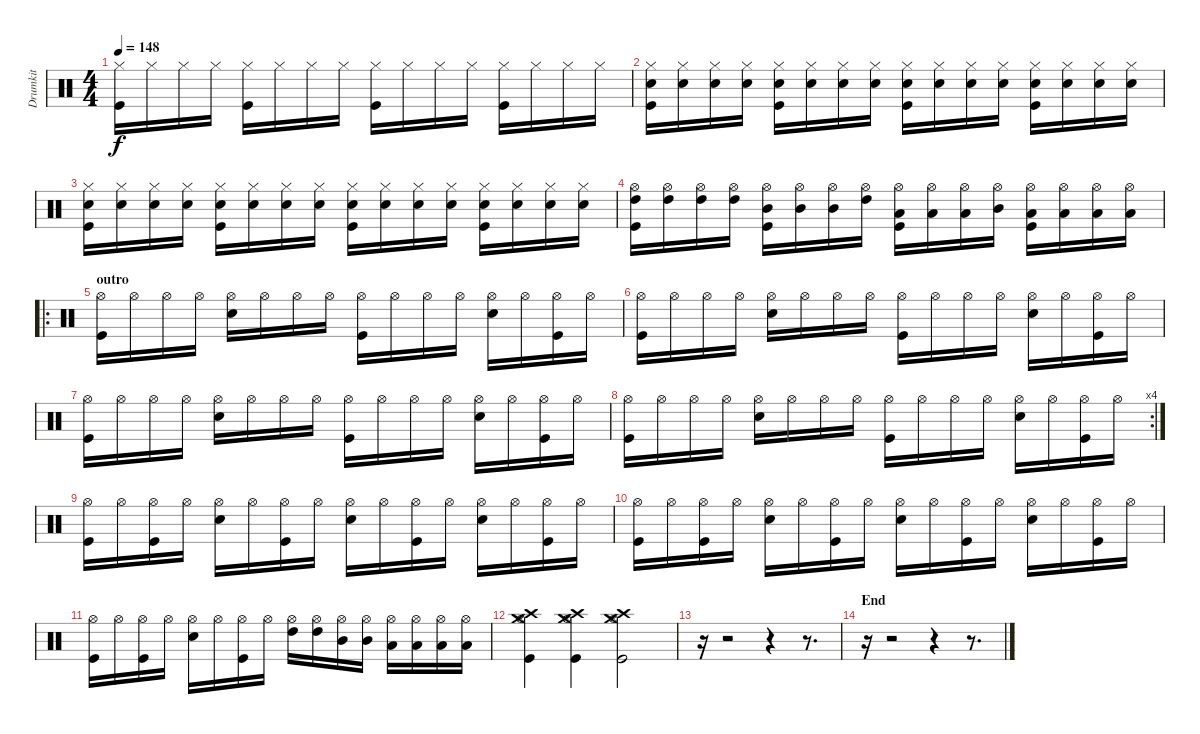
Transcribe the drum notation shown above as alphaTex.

\track ("Drumkit" "Drumkit") {instrument percussion}
\staff {score}
\articulation defaults
\ts (4 4)
\tempo 148
\clef neutral
\ks c
("Hi-Hat (closed)" "Kick (hit)").16{dy f} "Hi-Hat (closed)".16 "Hi-Hat (closed)".16 "Hi-Hat (closed)".16 ("Hi-Hat (closed)" "Kick (hit)").16 "Hi-Hat (closed)".16 "Hi-Hat (closed)".16 "Hi-Hat (closed)".16 ("Hi-Hat (closed)" "Kick (hit)").16 "Hi-Hat (closed)".16 "Hi-Hat (closed)".16 "Hi-Hat (closed)".16 ("Hi-Hat (closed)" "Kick (hit)").16 "Hi-Hat (closed)".16 "Hi-Hat (closed)".16 "Hi-Hat (closed)".16 |
("Hi-Hat (closed)" "Snare (hit) 2" "Kick (hit)").16 ("Hi-Hat (closed)" "Snare (hit) 2").16 ("Hi-Hat (closed)" "Snare (hit) 2").16 ("Hi-Hat (closed)" "Snare (hit) 2").16 ("Hi-Hat (closed)" "Snare (hit) 2" "Kick (hit)").16 ("Hi-Hat (closed)" "Snare (hit) 2").16 ("Hi-Hat (closed)" "Snare (hit) 2").16 ("Hi-Hat (closed)" "Snare (hit) 2").16 ("Hi-Hat (closed)" "Snare (hit) 2" "Kick (hit)").16 ("Hi-Hat (closed)" "Snare (hit) 2").16 ("Hi-Hat (closed)" "Snare (hit) 2").16 ("Hi-Hat (closed)" "Snare (hit) 2").16 ("Hi-Hat (closed)" "Snare (hit) 2" "Kick (hit)").16 ("Hi-Hat (closed)" "Snare (hit) 2").16 ("Hi-Hat (closed)" "Snare (hit) 2").16 ("Hi-Hat (closed)" "Snare (hit) 2").16 |
("Hi-Hat (closed)" "Snare (hit) 2" "Kick (hit)").16 ("Hi-Hat (closed)" "Snare (hit) 2").16 ("Hi-Hat (closed)" "Snare (hit) 2").16 ("Hi-Hat (closed)" "Snare (hit) 2").16 ("Hi-Hat (closed)" "Snare (hit) 2" "Kick (hit)").16 ("Hi-Hat (closed)" "Snare (hit) 2").16 ("Hi-Hat (closed)" "Snare (hit) 2").16 ("Hi-Hat (closed)" "Snare (hit) 2").16 ("Hi-Hat (closed)" "Snare (hit) 2" "Kick (hit)").16 ("Hi-Hat (closed)" "Snare (hit) 2").16 ("Hi-Hat (closed)" "Snare (hit) 2").16 ("Hi-Hat (closed)" "Snare (hit) 2").16 ("Hi-Hat (closed)" "Snare (hit) 2" "Kick (hit)").16 ("Hi-Hat (closed)" "Snare (hit) 2").16 ("Hi-Hat (closed)" "Snare (hit) 2").16 ("Hi-Hat (closed)" "Snare (hit) 2").16 |
("Hi-Hat (open)" "High Tom (hit)" "Kick (hit)").16 ("Hi-Hat (open)" "High Tom (hit)").16 ("Hi-Hat (open)" "High Tom (hit)").16 ("Hi-Hat (open)" "High Tom (hit)").16 ("Hi-Hat (open)" "Mid Tom (hit)" "Kick (hit)").16 ("Hi-Hat (open)" "Mid Tom (hit)").16 ("Hi-Hat (open)" "Mid Tom (hit)").16 ("Hi-Hat (open)" "High Tom (hit)").16 ("Hi-Hat (open)" "Low Tom (hit)" "Kick (hit)").16 ("Hi-Hat (open)" "Low Tom (hit)").16 ("Hi-Hat (open)" "Low Tom (hit)").16 ("Hi-Hat (open)" "Mid Tom (hit)").16 ("Hi-Hat (open)" "Low Floor Tom (hit)" "Kick (hit)").16 ("Hi-Hat (open)" "Low Floor Tom (hit)").16 ("Hi-Hat (open)" "Low Floor Tom (hit)").16 ("Hi-Hat (open)" "Low Floor Tom (hit)").16 |
\ro
\section ("" "outro")
("Hi-Hat (open)" "Kick (hit)").16 "Hi-Hat (open)".16 "Hi-Hat (open)".16 "Hi-Hat (open)".16 ("Hi-Hat (open)" "Snare (hit) 2").16 "Hi-Hat (open)".16 "Hi-Hat (open)".16 "Hi-Hat (open)".16 ("Hi-Hat (open)" "Kick (hit)").16 "Hi-Hat (open)".16 "Hi-Hat (open)".16 "Hi-Hat (open)".16 ("Hi-Hat (open)" "Snare (hit) 2").16 "Hi-Hat (open)".16 ("Hi-Hat (open)" "Kick (hit)").16 "Hi-Hat (open)".16 |
("Hi-Hat (open)" "Kick (hit)").16 "Hi-Hat (open)".16 "Hi-Hat (open)".16 "Hi-Hat (open)".16 ("Hi-Hat (open)" "Snare (hit) 2").16 "Hi-Hat (open)".16 "Hi-Hat (open)".16 "Hi-Hat (open)".16 ("Hi-Hat (open)" "Kick (hit)").16 "Hi-Hat (open)".16 "Hi-Hat (open)".16 "Hi-Hat (open)".16 ("Hi-Hat (open)" "Snare (hit) 2").16 "Hi-Hat (open)".16 ("Hi-Hat (open)" "Kick (hit)").16 "Hi-Hat (open)".16 |
("Hi-Hat (open)" "Kick (hit)").16 "Hi-Hat (open)".16 "Hi-Hat (open)".16 "Hi-Hat (open)".16 ("Hi-Hat (open)" "Snare (hit) 2").16 "Hi-Hat (open)".16 "Hi-Hat (open)".16 "Hi-Hat (open)".16 ("Hi-Hat (open)" "Kick (hit)").16 "Hi-Hat (open)".16 "Hi-Hat (open)".16 "Hi-Hat (open)".16 ("Hi-Hat (open)" "Snare (hit) 2").16 "Hi-Hat (open)".16 ("Hi-Hat (open)" "Kick (hit)").16 "Hi-Hat (open)".16 |
\rc 4
("Hi-Hat (open)" "Kick (hit)").16 "Hi-Hat (open)".16 "Hi-Hat (open)".16 "Hi-Hat (open)".16 ("Hi-Hat (open)" "Snare (hit) 2").16 "Hi-Hat (open)".16 "Hi-Hat (open)".16 "Hi-Hat (open)".16 ("Hi-Hat (open)" "Kick (hit)").16 "Hi-Hat (open)".16 "Hi-Hat (open)".16 "Hi-Hat (open)".16 ("Hi-Hat (open)" "Snare (hit) 2").16 "Hi-Hat (open)".16 ("Hi-Hat (open)" "Kick (hit)").16 "Hi-Hat (open)".16 |
("Hi-Hat (open)" "Kick (hit)").16 "Hi-Hat (open)".16 ("Hi-Hat (open)" "Kick (hit)").16 "Hi-Hat (open)".16 ("Hi-Hat (open)" "Snare (hit) 2").16 "Hi-Hat (open)".16 ("Hi-Hat (open)" "Kick (hit)").16 "Hi-Hat (open)".16 ("Hi-Hat (open)" "Snare (hit) 2").16 "Hi-Hat (open)".16 ("Hi-Hat (open)" "Kick (hit)").16 "Hi-Hat (open)".16 ("Hi-Hat (open)" "Snare (hit) 2").16 "Hi-Hat (open)".16 ("Hi-Hat (open)" "Kick (hit)").16 "Hi-Hat (open)".16 |
("Hi-Hat (open)" "Kick (hit)").16 "Hi-Hat (open)".16 ("Hi-Hat (open)" "Kick (hit)").16 "Hi-Hat (open)".16 ("Hi-Hat (open)" "Snare (hit) 2").16 "Hi-Hat (open)".16 ("Hi-Hat (open)" "Kick (hit)").16 "Hi-Hat (open)".16 ("Hi-Hat (open)" "Snare (hit) 2").16 "Hi-Hat (open)".16 ("Hi-Hat (open)" "Kick (hit)").16 "Hi-Hat (open)".16 ("Hi-Hat (open)" "Snare (hit) 2").16 "Hi-Hat (open)".16 ("Hi-Hat (open)" "Kick (hit)").16 "Hi-Hat (open)".16 |
("Hi-Hat (open)" "Kick (hit)").16 "Hi-Hat (open)".16 ("Hi-Hat (open)" "Kick (hit)").16 "Hi-Hat (open)".16 ("Hi-Hat (open)" "Snare (hit) 2").16 "Hi-Hat (open)".16 ("Hi-Hat (open)" "Kick (hit)").16 "Hi-Hat (open)".16 ("Hi-Hat (open)" "High Tom (hit)").16 ("Hi-Hat (open)" "High Tom (hit)").16 ("Hi-Hat (open)" "Mid Tom (hit)").16 ("Hi-Hat (open)" "Mid Tom (hit)").16 ("Hi-Hat (open)" "Low Floor Tom (hit)").16 ("Hi-Hat (open)" "Low Floor Tom (hit)").16 ("Hi-Hat (open)" "Low Floor Tom (hit)").16 ("Hi-Hat (open)" "Low Floor Tom (hit)").16 |
("Crash high (hit)" "Crash medium (hit)" "Hi-Hat (open)" "Kick (hit)").4 ("Crash high (hit)" "Crash medium (hit)" "Hi-Hat (open)" "Kick (hit)").4 ("Crash high (hit)" "Crash medium (hit)" "Hi-Hat (open)" "Kick (hit)").2 |
r.16 r.2 r.4 r.8{d} |
\section ("" "End")
r.16 r.2 r.4 r.8{d}
